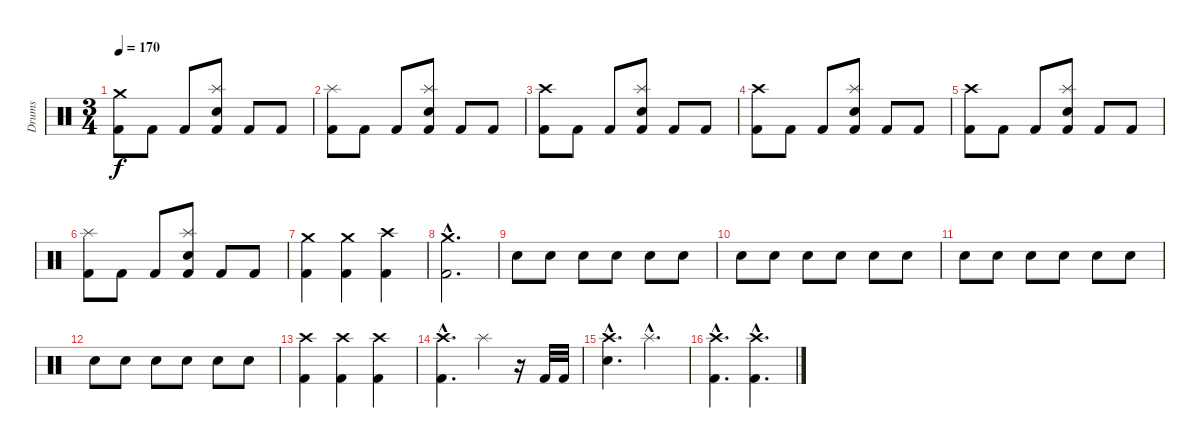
\track ("Drums" "Drums") {instrument percussion}
\staff {score}
\articulation defaults
\ts (3 4)
\tempo 170
\clef neutral
\ks c
("Crash medium (hit)" "Kick (hit) 2").8{dy f} "Kick (hit) 2".8 "Kick (hit) 2".8 ("Splash (hit)" "Electric Snare (hit)" "Kick (hit) 2").8 "Kick (hit) 2".8 "Kick (hit) 2".8 |
("Splash (hit)" "Kick (hit) 2").8 "Kick (hit) 2".8 "Kick (hit) 2".8 ("Splash (hit)" "Electric Snare (hit)" "Kick (hit) 2").8 "Kick (hit) 2".8 "Kick (hit) 2".8 |
("Crash high (hit)" "Kick (hit) 2").8 "Kick (hit) 2".8 "Kick (hit) 2".8 ("Splash (hit)" "Electric Snare (hit)" "Kick (hit) 2").8 "Kick (hit) 2".8 "Kick (hit) 2".8 |
("Crash high (hit)" "Kick (hit) 2").8 "Kick (hit) 2".8 "Kick (hit) 2".8 ("Splash (hit)" "Electric Snare (hit)" "Kick (hit) 2").8 "Kick (hit) 2".8 "Kick (hit) 2".8 |
("Crash high (hit)" "Kick (hit) 2").8 "Kick (hit) 2".8 "Kick (hit) 2".8 ("Splash (hit)" "Electric Snare (hit)" "Kick (hit) 2").8 "Kick (hit) 2".8 "Kick (hit) 2".8 |
("Splash (hit)" "Kick (hit) 2").8 "Kick (hit) 2".8 "Kick (hit) 2".8 ("Splash (hit)" "Electric Snare (hit)" "Kick (hit) 2").8 "Kick (hit) 2".8 "Kick (hit) 2".8 |
("Crash medium (hit)" "Kick (hit) 2").4 ("Crash medium (hit)" "Kick (hit) 2").4 ("Crash high (hit)" "Kick (hit) 2").4 |
("Crash medium (hit)"{hac} "Kick (hit) 2"{hac}).2{d} |
"Snare (hit) 2".8{volume 5} "Snare (hit) 2".8 "Snare (hit) 2".8 "Snare (hit) 2".8 "Snare (hit) 2".8 "Snare (hit) 2".8 |
"Snare (hit) 2".8{volume 6} "Snare (hit) 2".8{volume 7} "Snare (hit) 2".8{volume 8} "Snare (hit) 2".8{volume 9} "Snare (hit) 2".8{volume 10} "Snare (hit) 2".8{volume 11} |
"Snare (hit) 2".8{volume 12} "Snare (hit) 2".8{volume 13} "Snare (hit) 2".8{volume 14} "Snare (hit) 2".8{volume 14} "Snare (hit) 2".8{volume 15} "Snare (hit) 2".8{volume 15} |
"Snare (hit) 2".8{volume 16} "Snare (hit) 2".8 "Snare (hit) 2".8 "Snare (hit) 2".8 "Snare (hit) 2".8 "Snare (hit) 2".8 |
("Crash high (hit)" "Kick (hit) 2").4 ("Crash high (hit)" "Kick (hit) 2").4 ("Crash high (hit)" "Kick (hit) 2").4 |
("Crash high (hit)"{hac} "Kick (hit) 2"{hac}).4{d} "Splash (hit)".4 r.16 "Kick (hit) 2".32 "Kick (hit) 2".32 |
("Crash high (hit)"{hac} "Electric Snare (hit)"{hac}).4{d} "Splash (hit)"{hac}.4{d} |
("Crash high (hit)"{hac} "Kick (hit) 2"{hac}).4{d} ("Crash high (hit)"{hac} "Kick (hit) 2"{hac}).4{d}
